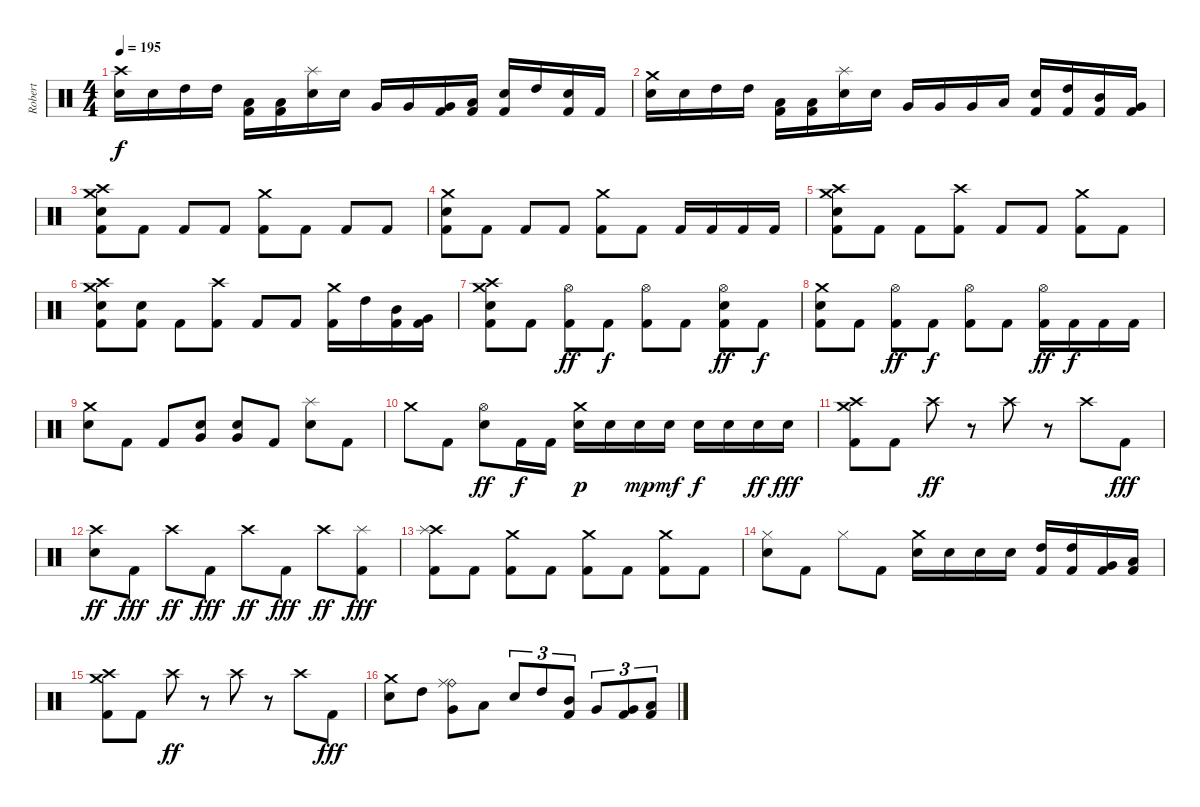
\track ("Robert" "Robert") {instrument percussion}
\staff {score}
\articulation defaults
\ts (4 4)
\tempo 195
\clef neutral
\ks c
("Crash high (hit)" "Electric Snare (hit)").16{dy f} "Electric Snare (hit)".16 "High Tom (hit)".16 "High Tom (hit)".16 ("Low Tom (hit)" "Kick (hit) 2").16 ("Low Tom (hit)" "Kick (hit) 2").16 ("Splash (hit)" "Electric Snare (hit)").16 "Electric Snare (hit)".16 "Very Low Tom (hit)".16 "Very Low Tom (hit)".16 ("Very Low Tom (hit)" "Kick (hit) 2").16 ("Low Floor Tom (hit)" "Kick (hit) 2").16 ("Kick (hit) 2" "Electric Snare (hit)").16 "High Tom (hit)".16 ("Kick (hit) 2" "Electric Snare (hit)").16 "Kick (hit) 2".16 |
("Crash medium (hit)" "Electric Snare (hit)").16 "Electric Snare (hit)".16 "High Tom (hit)".16 "High Tom (hit)".16 ("Low Tom (hit)" "Kick (hit) 2").16 ("Low Tom (hit)" "Kick (hit) 2").16 ("Splash (hit)" "Electric Snare (hit)").16 "Electric Snare (hit)".16 "Very Low Tom (hit)".16 "Very Low Tom (hit)".16 "Very Low Tom (hit)".16 "Low Floor Tom (hit)".16 ("Electric Snare (hit)" "Kick (hit) 2").16 ("High Tom (hit)" "Kick (hit) 2").16 ("Mid Tom (hit)" "Kick (hit) 2").16 ("Very Low Tom (hit)" "Kick (hit) 2").16 |
("Crash medium (hit)" "Electric Snare (hit)" "Crash high (hit)" "Kick (hit) 2").8 "Kick (hit) 2".8 "Kick (hit) 2".8 "Kick (hit) 2".8 ("Crash medium (hit)" "Kick (hit) 2").8 "Kick (hit) 2".8 "Kick (hit) 2".8 "Kick (hit) 2".8 |
("Crash medium (hit)" "Electric Snare (hit)" "Kick (hit) 2").8 "Kick (hit) 2".8 "Kick (hit) 2".8 "Kick (hit) 2".8 ("Crash medium (hit)" "Kick (hit) 2").8 "Kick (hit) 2".8 "Kick (hit) 2".16 "Kick (hit) 2".16 "Kick (hit) 2".16 "Kick (hit) 2".16 |
("Crash medium (hit)" "Electric Snare (hit)" "Crash high (hit)" "Kick (hit) 2").8 "Kick (hit) 2".8 "Kick (hit) 2".8 ("Crash high (hit)" "Kick (hit) 2").8 "Kick (hit) 2".8 "Kick (hit) 2".8 ("Crash medium (hit)" "Kick (hit) 2").8 "Kick (hit) 2".8 |
("Crash medium (hit)" "Electric Snare (hit)" "Crash high (hit)" "Kick (hit) 2").8 ("Electric Snare (hit)" "Kick (hit) 2").8 "Kick (hit) 2".8 ("Crash high (hit)" "Kick (hit) 2").8 "Kick (hit) 2".8 "Kick (hit) 2".8 ("Crash medium (hit)" "Kick (hit) 2").16 "High Tom (hit)".16 ("Kick (hit) 2" "Mid Tom (hit)").16 ("Kick (hit) 2" "Very Low Tom (hit)").16 |
("Crash medium (hit)" "Electric Snare (hit)" "Crash high (hit)" "Kick (hit) 2").8 "Kick (hit) 2".8 ("Hi-Hat (open)" "Kick (hit) 2").8{dy ff} "Kick (hit) 2".8{dy f} ("Hi-Hat (open)" "Kick (hit) 2").8 "Kick (hit) 2".8 ("Hi-Hat (open)" "Electric Snare (hit)" "Kick (hit) 2").8{dy ff} "Kick (hit) 2".8{dy f} |
("Crash medium (hit)" "Electric Snare (hit)" "Kick (hit) 2").8 "Kick (hit) 2".8 ("Hi-Hat (open)" "Kick (hit) 2").8{dy ff} "Kick (hit) 2".8{dy f} ("Hi-Hat (open)" "Kick (hit) 2").8 "Kick (hit) 2".8 ("Hi-Hat (open)" "Kick (hit) 2").16{dy ff} "Kick (hit) 2".16{dy f} "Kick (hit) 2".16 "Kick (hit) 2".16 |
("Electric Snare (hit)" "Crash medium (hit)").8 "Kick (hit) 2".8 "Kick (hit) 2".8 ("Very Low Tom (hit)" "Electric Snare (hit)").8 ("Very Low Tom (hit)" "Electric Snare (hit)").8 "Kick (hit) 2".8 ("Electric Snare (hit)" "Splash (hit)").8 "Kick (hit) 2".8 |
"Crash medium (hit)".8 "Kick (hit) 2".8 ("Hi-Hat (open)" "Electric Snare (hit)").8{dy ff} "Kick (hit) 2".16{dy f} "Kick (hit) 2".16 ("Crash medium (hit)" "Electric Snare (hit)").16{dy p} "Electric Snare (hit)".16 "Electric Snare (hit)".16{dy mp} "Electric Snare (hit)".16{dy mf} "Electric Snare (hit)".16{dy f} "Electric Snare (hit)".16 "Electric Snare (hit)".16{dy ff} "Electric Snare (hit)".16{dy fff} |
("Crash medium (hit)" "Crash high (hit)" "Kick (hit) 2").8 "Kick (hit) 2".8 "Crash high (hit)".8{dy ff} r.8 "Crash high (hit)".8 r.8 "Crash high (hit)".8 "Kick (hit) 2".8{dy fff} |
("Crash high (hit)" "Electric Snare (hit)").8{dy ff} "Kick (hit) 2".8{dy fff} "Crash high (hit)".8{dy ff} "Kick (hit) 2".8{dy fff} "Crash high (hit)".8{dy ff} "Kick (hit) 2".8{dy fff} "Crash high (hit)".8{dy ff} ("Splash (hit)" "Kick (hit) 2").8{dy fff} |
("Crash high (hit)" "Splash (hit)" "Kick (hit) 2").8 "Kick (hit) 2".8 ("Crash medium (hit)" "Kick (hit) 2").8 "Kick (hit) 2".8 ("Crash medium (hit)" "Kick (hit) 2").8 "Kick (hit) 2".8 ("Crash medium (hit)" "Kick (hit) 2").8 "Kick (hit) 2".8 |
("Hi-Hat (closed)" "Electric Snare (hit)").8 "Kick (hit) 2".8 "Hi-Hat (closed)".8 "Kick (hit) 2".8 ("Crash medium (hit)" "Electric Snare (hit)").16 "Electric Snare (hit)".16 "Electric Snare (hit)".16 "Electric Snare (hit)".16 ("High Tom (hit)" "Kick (hit) 2").16 ("High Tom (hit)" "Kick (hit) 2").16 ("Very Low Tom (hit)" "Kick (hit) 2").16 ("Low Floor Tom (hit)" "Kick (hit) 2").16 |
("Crash medium (hit)" "Crash high (hit)" "Kick (hit) 2").8 "Kick (hit) 2".8 "Crash high (hit)".8{dy ff} r.8 "Crash high (hit)".8 r.8 "Crash high (hit)".8 "Kick (hit) 2".8{dy fff} |
("Electric Snare (hit)" "Crash medium (hit)").8 "High Tom (hit)".8 ("Very Low Tom (hit)" "Ride (bell)" "Ride (middle)").8 "Low Floor Tom (hit)".8 "Electric Snare (hit)".8{tu (3 2)} "High Tom (hit)".8{tu (3 2)} ("Mid Tom (hit)" "Kick (hit) 2").8{tu (3 2)} "Very Low Tom (hit)".8{tu (3 2)} ("Very Low Tom (hit)" "Kick (hit) 2").8{tu (3 2)} ("Low Floor Tom (hit)" "Kick (hit) 2").8{tu (3 2)}
